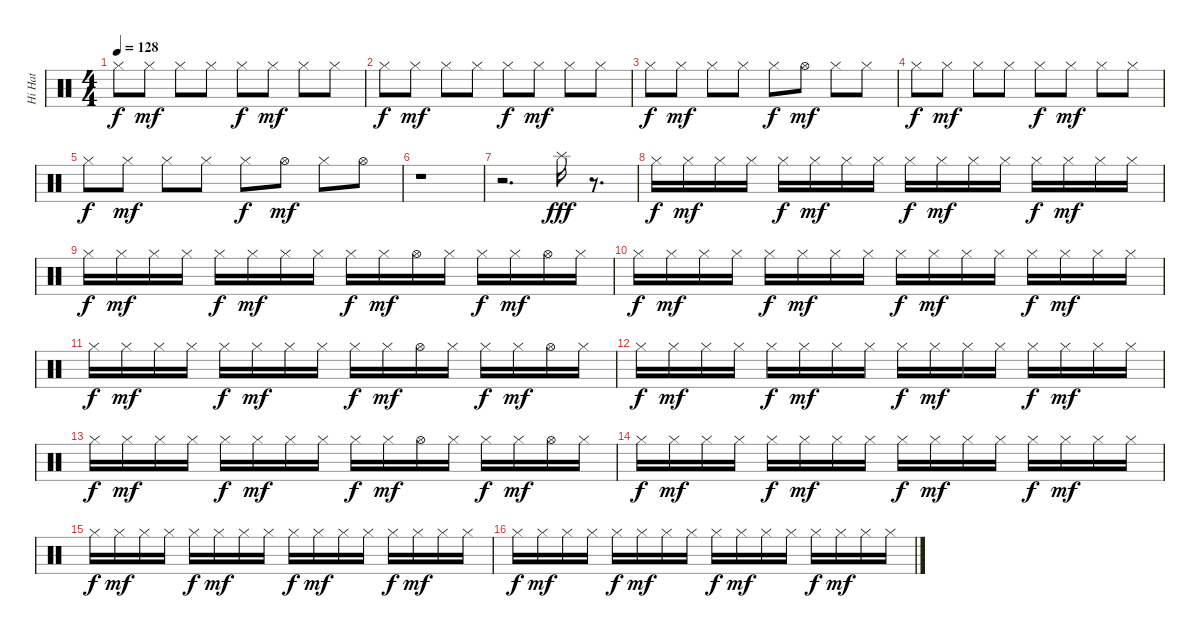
\track ("Hi Hat" "Hi Hat") {instrument percussion}
\staff {score}
\articulation defaults
\ts (4 4)
\tempo 128
\clef neutral
\ks c "Hi-Hat (closed)".8{dy f} "Hi-Hat (closed)".8{dy mf} "Hi-Hat (closed)".8 "Hi-Hat (closed)".8 "Hi-Hat (closed)".8{dy f} "Hi-Hat (closed)".8{dy mf} "Hi-Hat (closed)".8 "Hi-Hat (closed)".8
|
"Hi-Hat (closed)".8{dy f} "Hi-Hat (closed)".8{dy mf} "Hi-Hat (closed)".8 "Hi-Hat (closed)".8 "Hi-Hat (closed)".8{dy f} "Hi-Hat (closed)".8{dy mf} "Hi-Hat (closed)".8 "Hi-Hat (closed)".8 |
"Hi-Hat (closed)".8{dy f} "Hi-Hat (closed)".8{dy mf} "Hi-Hat (closed)".8 "Hi-Hat (closed)".8 "Hi-Hat (closed)".8{dy f} "Hi-Hat (open)".8{dy mf} "Hi-Hat (closed)".8 "Hi-Hat (closed)".8 |
"Hi-Hat (closed)".8{dy f} "Hi-Hat (closed)".8{dy mf} "Hi-Hat (closed)".8 "Hi-Hat (closed)".8 "Hi-Hat (closed)".8{dy f} "Hi-Hat (closed)".8{dy mf} "Hi-Hat (closed)".8 "Hi-Hat (closed)".8 |
"Hi-Hat (closed)".8{dy f} "Hi-Hat (closed)".8{dy mf} "Hi-Hat (closed)".8 "Hi-Hat (closed)".8 "Hi-Hat (closed)".8{dy f} "Hi-Hat (open)".8{dy mf} "Hi-Hat (closed)".8 "Hi-Hat (open)".8 |
r.1 |
r.2{d} "Splash (hit)".16{dy fff} r.8{d} |
"Hi-Hat (closed)".16{dy f} "Hi-Hat (closed)".16{dy mf} "Hi-Hat (closed)".16 "Hi-Hat (closed)".16 "Hi-Hat (closed)".16{dy f} "Hi-Hat (closed)".16{dy mf} "Hi-Hat (closed)".16 "Hi-Hat (closed)".16 "Hi-Hat (closed)".16{dy f} "Hi-Hat (closed)".16{dy mf} "Hi-Hat (closed)".16 "Hi-Hat (closed)".16 "Hi-Hat (closed)".16{dy f} "Hi-Hat (closed)".16{dy mf} "Hi-Hat (closed)".16 "Hi-Hat (closed)".16 |
"Hi-Hat (closed)".16{dy f} "Hi-Hat (closed)".16{dy mf} "Hi-Hat (closed)".16 "Hi-Hat (closed)".16 "Hi-Hat (closed)".16{dy f} "Hi-Hat (closed)".16{dy mf} "Hi-Hat (closed)".16 "Hi-Hat (closed)".16 "Hi-Hat (closed)".16{dy f} "Hi-Hat (closed)".16{dy mf} "Hi-Hat (open)".16 "Hi-Hat (closed)".16 "Hi-Hat (closed)".16{dy f} "Hi-Hat (closed)".16{dy mf} "Hi-Hat (open)".16 "Hi-Hat (closed)".16 |
"Hi-Hat (closed)".16{dy f} "Hi-Hat (closed)".16{dy mf} "Hi-Hat (closed)".16 "Hi-Hat (closed)".16 "Hi-Hat (closed)".16{dy f} "Hi-Hat (closed)".16{dy mf} "Hi-Hat (closed)".16 "Hi-Hat (closed)".16 "Hi-Hat (closed)".16{dy f} "Hi-Hat (closed)".16{dy mf} "Hi-Hat (closed)".16 "Hi-Hat (closed)".16 "Hi-Hat (closed)".16{dy f} "Hi-Hat (closed)".16{dy mf} "Hi-Hat (closed)".16 "Hi-Hat (closed)".16 |
"Hi-Hat (closed)".16{dy f} "Hi-Hat (closed)".16{dy mf} "Hi-Hat (closed)".16 "Hi-Hat (closed)".16 "Hi-Hat (closed)".16{dy f} "Hi-Hat (closed)".16{dy mf} "Hi-Hat (closed)".16 "Hi-Hat (closed)".16 "Hi-Hat (closed)".16{dy f} "Hi-Hat (closed)".16{dy mf} "Hi-Hat (open)".16 "Hi-Hat (closed)".16 "Hi-Hat (closed)".16{dy f} "Hi-Hat (closed)".16{dy mf} "Hi-Hat (open)".16 "Hi-Hat (closed)".16 |
"Hi-Hat (closed)".16{dy f} "Hi-Hat (closed)".16{dy mf} "Hi-Hat (closed)".16 "Hi-Hat (closed)".16 "Hi-Hat (closed)".16{dy f} "Hi-Hat (closed)".16{dy mf} "Hi-Hat (closed)".16 "Hi-Hat (closed)".16 "Hi-Hat (closed)".16{dy f} "Hi-Hat (closed)".16{dy mf} "Hi-Hat (closed)".16 "Hi-Hat (closed)".16 "Hi-Hat (closed)".16{dy f} "Hi-Hat (closed)".16{dy mf} "Hi-Hat (closed)".16 "Hi-Hat (closed)".16 |
"Hi-Hat (closed)".16{dy f} "Hi-Hat (closed)".16{dy mf} "Hi-Hat (closed)".16 "Hi-Hat (closed)".16 "Hi-Hat (closed)".16{dy f} "Hi-Hat (closed)".16{dy mf} "Hi-Hat (closed)".16 "Hi-Hat (closed)".16 "Hi-Hat (closed)".16{dy f} "Hi-Hat (closed)".16{dy mf} "Hi-Hat (open)".16 "Hi-Hat (closed)".16 "Hi-Hat (closed)".16{dy f} "Hi-Hat (closed)".16{dy mf} "Hi-Hat (open)".16 "Hi-Hat (closed)".16 |
"Hi-Hat (closed)".16{dy f} "Hi-Hat (closed)".16{dy mf} "Hi-Hat (closed)".16 "Hi-Hat (closed)".16 "Hi-Hat (closed)".16{dy f} "Hi-Hat (closed)".16{dy mf} "Hi-Hat (closed)".16 "Hi-Hat (closed)".16 "Hi-Hat (closed)".16{dy f} "Hi-Hat (closed)".16{dy mf} "Hi-Hat (closed)".16 "Hi-Hat (closed)".16 "Hi-Hat (closed)".16{dy f} "Hi-Hat (closed)".16{dy mf} "Hi-Hat (closed)".16 "Hi-Hat (closed)".16 |
"Hi-Hat (closed)".16{dy f} "Hi-Hat (closed)".16{dy mf} "Hi-Hat (closed)".16 "Hi-Hat (closed)".16 "Hi-Hat (closed)".16{dy f} "Hi-Hat (closed)".16{dy mf} "Hi-Hat (closed)".16 "Hi-Hat (closed)".16 "Hi-Hat (closed)".16{dy f} "Hi-Hat (closed)".16{dy mf} "Hi-Hat (closed)".16 "Hi-Hat (closed)".16 "Hi-Hat (closed)".16{dy f} "Hi-Hat (closed)".16{dy mf} "Hi-Hat (closed)".16 "Hi-Hat (closed)".16 |
"Hi-Hat (closed)".16{dy f} "Hi-Hat (closed)".16{dy mf} "Hi-Hat (closed)".16 "Hi-Hat (closed)".16 "Hi-Hat (closed)".16{dy f} "Hi-Hat (closed)".16{dy mf} "Hi-Hat (closed)".16 "Hi-Hat (closed)".16 "Hi-Hat (closed)".16{dy f} "Hi-Hat (closed)".16{dy mf} "Hi-Hat (closed)".16 "Hi-Hat (closed)".16 "Hi-Hat (closed)".16{dy f} "Hi-Hat (closed)".16{dy mf} "Hi-Hat (closed)".16 "Hi-Hat (closed)".16
